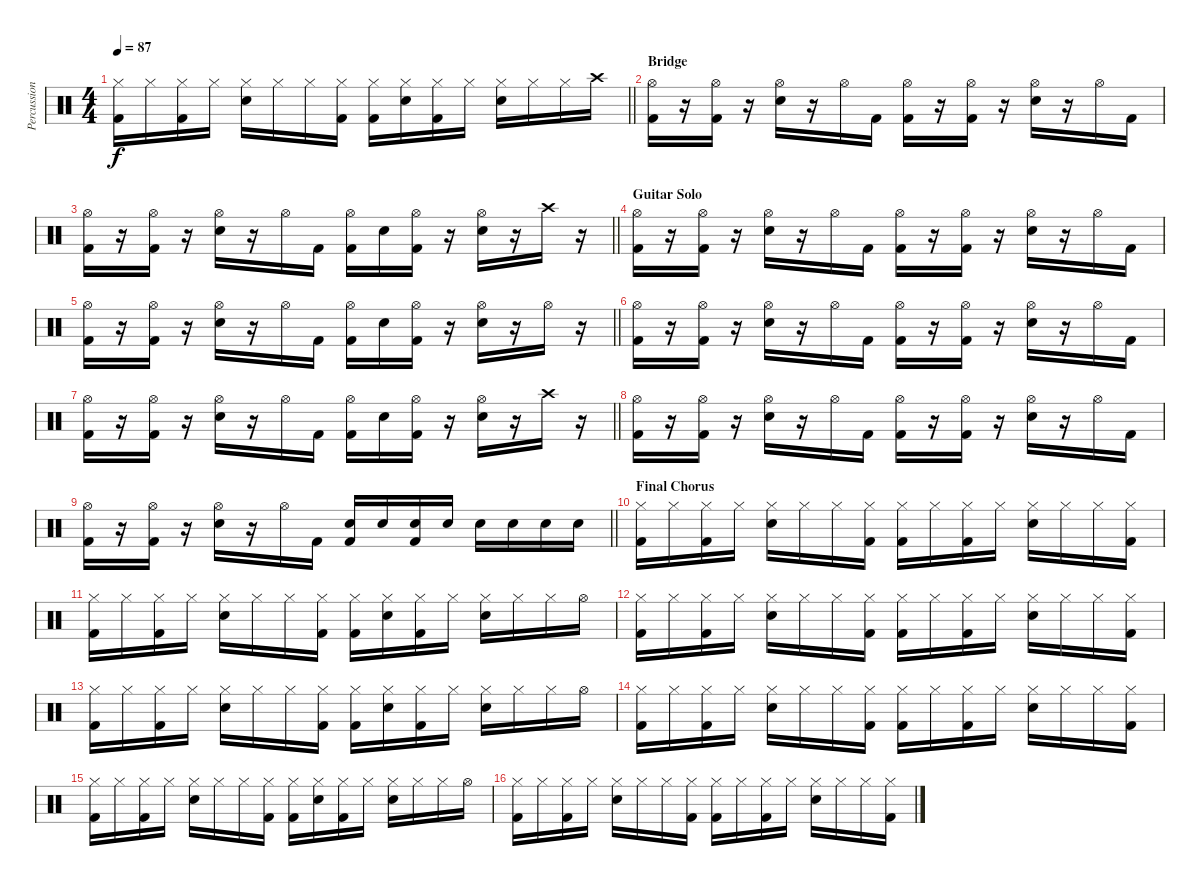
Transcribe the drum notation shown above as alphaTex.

\track ("Percussion" "Percussion") {instrument percussion}
\staff {score}
\articulation defaults
\ts (4 4)
\tempo 87
\clef neutral
\barLineRight lightlight
\ks c
("Hi-Hat (closed)" "Kick (hit) 2").16{dy f} "Hi-Hat (closed)".16 ("Hi-Hat (closed)" "Kick (hit) 2").16 "Hi-Hat (closed)".16 ("Hi-Hat (closed)" "Snare (hit) 2").16 "Hi-Hat (closed)".16 "Hi-Hat (closed)".16 ("Hi-Hat (closed)" "Kick (hit) 2").16 ("Hi-Hat (closed)" "Kick (hit) 2").16 ("Hi-Hat (closed)" "Snare (hit) 2").16 ("Hi-Hat (closed)" "Kick (hit) 2").16 "Hi-Hat (closed)".16 ("Hi-Hat (closed)" "Snare (hit) 2").16 "Hi-Hat (closed)".16 "Hi-Hat (closed)".16 "Crash high (hit)".16 |
\section ("" "Bridge")
("Hi-Hat (open)" "Kick (hit) 2").16 r.16 ("Hi-Hat (open)" "Kick (hit) 2").16 r.16 ("Hi-Hat (open)" "Snare (hit) 2").16 r.16 "Hi-Hat (open)".16 "Kick (hit) 2".16 ("Hi-Hat (open)" "Kick (hit) 2").16 r.16 ("Hi-Hat (open)" "Kick (hit) 2").16 r.16 ("Hi-Hat (open)" "Snare (hit) 2").16 r.16 "Hi-Hat (open)".16 "Kick (hit) 2".16 |
\barLineRight lightlight
("Hi-Hat (open)" "Kick (hit) 2").16 r.16 ("Hi-Hat (open)" "Kick (hit) 2").16 r.16 ("Hi-Hat (open)" "Snare (hit) 2").16 r.16 "Hi-Hat (open)".16 "Kick (hit) 2".16 ("Hi-Hat (open)" "Kick (hit) 2").16 "Snare (hit) 2".16 ("Hi-Hat (open)" "Kick (hit) 2").16 r.16 ("Hi-Hat (open)" "Snare (hit) 2").16 r.16 "Crash high (hit)".16 r.16 |
\section ("" "Guitar Solo")
("Hi-Hat (open)" "Kick (hit) 2").16 r.16 ("Hi-Hat (open)" "Kick (hit) 2").16 r.16 ("Hi-Hat (open)" "Snare (hit) 2").16 r.16 "Hi-Hat (open)".16 "Kick (hit) 2".16 ("Hi-Hat (open)" "Kick (hit) 2").16 r.16 ("Hi-Hat (open)" "Kick (hit) 2").16 r.16 ("Hi-Hat (open)" "Snare (hit) 2").16 r.16 "Hi-Hat (open)".16 "Kick (hit) 2".16 |
\barLineRight lightlight
("Hi-Hat (open)" "Kick (hit) 2").16 r.16 ("Hi-Hat (open)" "Kick (hit) 2").16 r.16 ("Hi-Hat (open)" "Snare (hit) 2").16 r.16 "Hi-Hat (open)".16 "Kick (hit) 2".16 ("Hi-Hat (open)" "Kick (hit) 2").16 "Snare (hit) 2".16 ("Hi-Hat (open)" "Kick (hit) 2").16 r.16 ("Hi-Hat (open)" "Snare (hit) 2").16 r.16 "Hi-Hat (open)".16 r.16 |
("Hi-Hat (open)" "Kick (hit) 2").16 r.16 ("Hi-Hat (open)" "Kick (hit) 2").16 r.16 ("Hi-Hat (open)" "Snare (hit) 2").16 r.16 "Hi-Hat (open)".16 "Kick (hit) 2".16 ("Hi-Hat (open)" "Kick (hit) 2").16 r.16 ("Hi-Hat (open)" "Kick (hit) 2").16 r.16 ("Hi-Hat (open)" "Snare (hit) 2").16 r.16 "Hi-Hat (open)".16 "Kick (hit) 2".16 |
\barLineRight lightlight
("Hi-Hat (open)" "Kick (hit) 2").16 r.16 ("Hi-Hat (open)" "Kick (hit) 2").16 r.16 ("Hi-Hat (open)" "Snare (hit) 2").16 r.16 "Hi-Hat (open)".16 "Kick (hit) 2".16 ("Hi-Hat (open)" "Kick (hit) 2").16 "Snare (hit) 2".16 ("Hi-Hat (open)" "Kick (hit) 2").16 r.16 ("Hi-Hat (open)" "Snare (hit) 2").16 r.16 "Crash high (hit)".16 r.16 |
("Hi-Hat (open)" "Kick (hit) 2").16 r.16 ("Hi-Hat (open)" "Kick (hit) 2").16 r.16 ("Hi-Hat (open)" "Snare (hit) 2").16 r.16 "Hi-Hat (open)".16 "Kick (hit) 2".16 ("Hi-Hat (open)" "Kick (hit) 2").16 r.16 ("Hi-Hat (open)" "Kick (hit) 2").16 r.16 ("Hi-Hat (open)" "Snare (hit) 2").16 r.16 "Hi-Hat (open)".16 "Kick (hit) 2".16 |
\barLineRight lightlight
("Hi-Hat (open)" "Kick (hit) 2").16 r.16 ("Hi-Hat (open)" "Kick (hit) 2").16 r.16 ("Hi-Hat (open)" "Snare (hit) 2").16 r.16 "Hi-Hat (open)".16 "Kick (hit) 2".16 ("Snare (hit) 2" "Kick (hit) 2").16 "Snare (hit) 2".16 ("Snare (hit) 2" "Kick (hit) 2").16 "Snare (hit) 2".16 "Snare (hit) 2".16 "Snare (hit) 2".16 "Snare (hit) 2".16 "Snare (hit) 2".16 |
\section ("" "Final Chorus")
("Hi-Hat (closed)" "Kick (hit) 2").16 "Hi-Hat (closed)".16 ("Hi-Hat (closed)" "Kick (hit) 2").16 "Hi-Hat (closed)".16 ("Hi-Hat (closed)" "Snare (hit) 2").16 "Hi-Hat (closed)".16 "Hi-Hat (closed)".16 ("Hi-Hat (closed)" "Kick (hit) 2").16 ("Hi-Hat (closed)" "Kick (hit) 2").16 "Hi-Hat (closed)".16 ("Hi-Hat (closed)" "Kick (hit) 2").16 "Hi-Hat (closed)".16 ("Hi-Hat (closed)" "Snare (hit) 2").16 "Hi-Hat (closed)".16 "Hi-Hat (closed)".16 ("Hi-Hat (closed)" "Kick (hit) 2").16 |
("Hi-Hat (closed)" "Kick (hit) 2").16 "Hi-Hat (closed)".16 ("Hi-Hat (closed)" "Kick (hit) 2").16 "Hi-Hat (closed)".16 ("Hi-Hat (closed)" "Snare (hit) 2").16 "Hi-Hat (closed)".16 "Hi-Hat (closed)".16 ("Hi-Hat (closed)" "Kick (hit) 2").16 ("Hi-Hat (closed)" "Kick (hit) 2").16 ("Hi-Hat (closed)" "Snare (hit) 2").16 ("Hi-Hat (closed)" "Kick (hit) 2").16 "Hi-Hat (closed)".16 ("Hi-Hat (closed)" "Snare (hit) 2").16 "Hi-Hat (closed)".16 "Hi-Hat (closed)".16 "Hi-Hat (open)".16 |
("Hi-Hat (closed)" "Kick (hit) 2").16 "Hi-Hat (closed)".16 ("Hi-Hat (closed)" "Kick (hit) 2").16 "Hi-Hat (closed)".16 ("Hi-Hat (closed)" "Snare (hit) 2").16 "Hi-Hat (closed)".16 "Hi-Hat (closed)".16 ("Hi-Hat (closed)" "Kick (hit) 2").16 ("Hi-Hat (closed)" "Kick (hit) 2").16 "Hi-Hat (closed)".16 ("Hi-Hat (closed)" "Kick (hit) 2").16 "Hi-Hat (closed)".16 ("Hi-Hat (closed)" "Snare (hit) 2").16 "Hi-Hat (closed)".16 "Hi-Hat (closed)".16 ("Hi-Hat (closed)" "Kick (hit) 2").16 |
("Hi-Hat (closed)" "Kick (hit) 2").16 "Hi-Hat (closed)".16 ("Hi-Hat (closed)" "Kick (hit) 2").16 "Hi-Hat (closed)".16 ("Hi-Hat (closed)" "Snare (hit) 2").16 "Hi-Hat (closed)".16 "Hi-Hat (closed)".16 ("Hi-Hat (closed)" "Kick (hit) 2").16 ("Hi-Hat (closed)" "Kick (hit) 2").16 ("Hi-Hat (closed)" "Snare (hit) 2").16 ("Hi-Hat (closed)" "Kick (hit) 2").16 "Hi-Hat (closed)".16 ("Hi-Hat (closed)" "Snare (hit) 2").16 "Hi-Hat (closed)".16 "Hi-Hat (closed)".16 "Hi-Hat (open)".16 |
("Hi-Hat (closed)" "Kick (hit) 2").16 "Hi-Hat (closed)".16 ("Hi-Hat (closed)" "Kick (hit) 2").16 "Hi-Hat (closed)".16 ("Hi-Hat (closed)" "Snare (hit) 2").16 "Hi-Hat (closed)".16 "Hi-Hat (closed)".16 ("Hi-Hat (closed)" "Kick (hit) 2").16 ("Hi-Hat (closed)" "Kick (hit) 2").16 "Hi-Hat (closed)".16 ("Hi-Hat (closed)" "Kick (hit) 2").16 "Hi-Hat (closed)".16 ("Hi-Hat (closed)" "Snare (hit) 2").16 "Hi-Hat (closed)".16 "Hi-Hat (closed)".16 ("Hi-Hat (closed)" "Kick (hit) 2").16 |
("Hi-Hat (closed)" "Kick (hit) 2").16 "Hi-Hat (closed)".16 ("Hi-Hat (closed)" "Kick (hit) 2").16 "Hi-Hat (closed)".16 ("Hi-Hat (closed)" "Snare (hit) 2").16 "Hi-Hat (closed)".16 "Hi-Hat (closed)".16 ("Hi-Hat (closed)" "Kick (hit) 2").16 ("Hi-Hat (closed)" "Kick (hit) 2").16 ("Hi-Hat (closed)" "Snare (hit) 2").16 ("Hi-Hat (closed)" "Kick (hit) 2").16 "Hi-Hat (closed)".16 ("Hi-Hat (closed)" "Snare (hit) 2").16 "Hi-Hat (closed)".16 "Hi-Hat (closed)".16 "Hi-Hat (open)".16 |
("Hi-Hat (closed)" "Kick (hit) 2").16 "Hi-Hat (closed)".16 ("Hi-Hat (closed)" "Kick (hit) 2").16 "Hi-Hat (closed)".16 ("Hi-Hat (closed)" "Snare (hit) 2").16 "Hi-Hat (closed)".16 "Hi-Hat (closed)".16 ("Hi-Hat (closed)" "Kick (hit) 2").16 ("Hi-Hat (closed)" "Kick (hit) 2").16 "Hi-Hat (closed)".16 ("Hi-Hat (closed)" "Kick (hit) 2").16 "Hi-Hat (closed)".16 ("Hi-Hat (closed)" "Snare (hit) 2").16 "Hi-Hat (closed)".16 "Hi-Hat (closed)".16 ("Hi-Hat (closed)" "Kick (hit) 2").16
